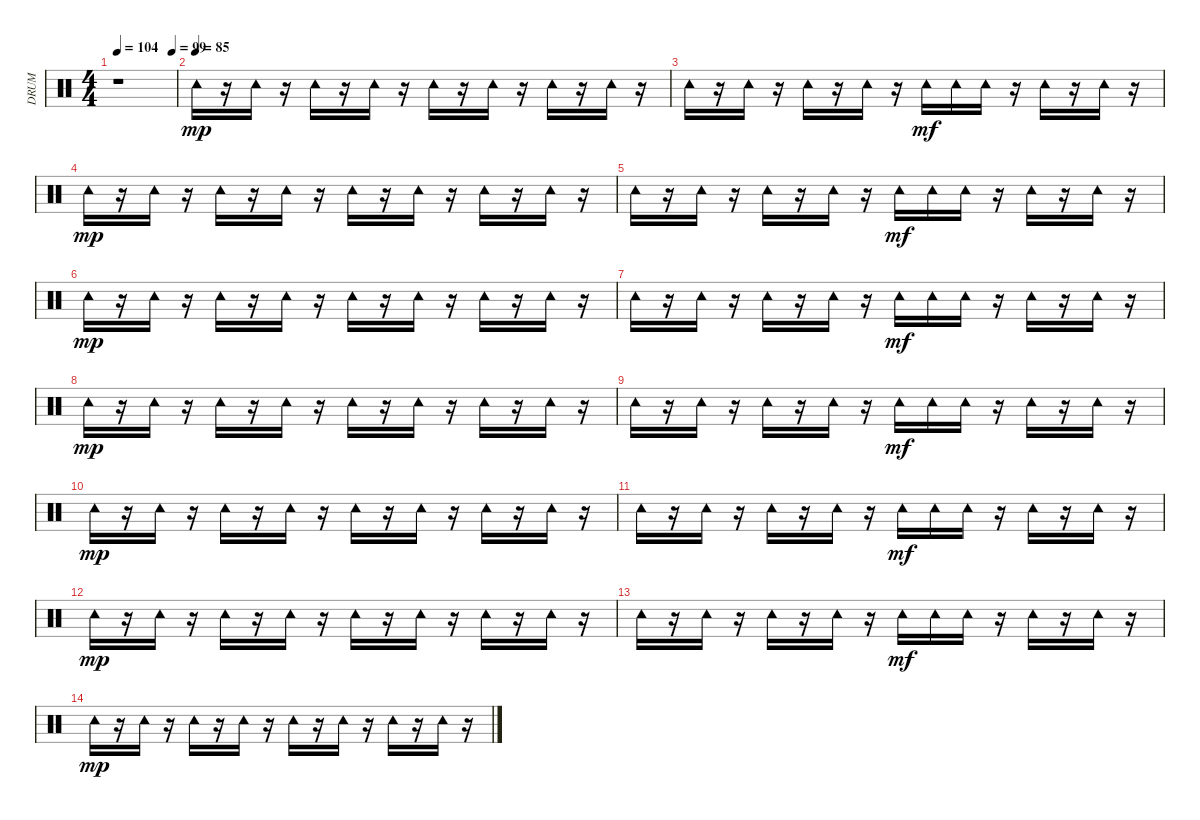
\track ("DRUM" "DRUM") {instrument percussion}
\staff {score}
\articulation defaults
\ts (4 4)
\tempo 104
\tempo (99 0.9375)
\tempo 104
\clef neutral
\ks c
r.1{dy mp} |
\tempo (85)
"Tambourine (hit)".16 r.16 "Tambourine (hit)".16 r.16 "Tambourine (hit)".16 r.16 "Tambourine (hit)".16 r.16 "Tambourine (hit)".16 r.16 "Tambourine (hit)".16 r.16 "Tambourine (hit)".16 r.16 "Tambourine (hit)".16 r.16 |
"Tambourine (hit)".16 r.16 "Tambourine (hit)".16 r.16 "Tambourine (hit)".16 r.16 "Tambourine (hit)".16 r.16 "Tambourine (hit)".16{dy mf} "Tambourine (hit)".16 "Tambourine (hit)".16 r.16 "Tambourine (hit)".16 r.16 "Tambourine (hit)".16 r.16 |
"Tambourine (hit)".16{dy mp} r.16 "Tambourine (hit)".16 r.16 "Tambourine (hit)".16 r.16 "Tambourine (hit)".16 r.16 "Tambourine (hit)".16 r.16 "Tambourine (hit)".16 r.16 "Tambourine (hit)".16 r.16 "Tambourine (hit)".16 r.16 |
"Tambourine (hit)".16 r.16 "Tambourine (hit)".16 r.16 "Tambourine (hit)".16 r.16 "Tambourine (hit)".16 r.16 "Tambourine (hit)".16{dy mf} "Tambourine (hit)".16 "Tambourine (hit)".16 r.16 "Tambourine (hit)".16 r.16 "Tambourine (hit)".16 r.16 |
"Tambourine (hit)".16{dy mp} r.16 "Tambourine (hit)".16 r.16 "Tambourine (hit)".16 r.16 "Tambourine (hit)".16 r.16 "Tambourine (hit)".16 r.16 "Tambourine (hit)".16 r.16 "Tambourine (hit)".16 r.16 "Tambourine (hit)".16 r.16 |
"Tambourine (hit)".16 r.16 "Tambourine (hit)".16 r.16 "Tambourine (hit)".16 r.16 "Tambourine (hit)".16 r.16 "Tambourine (hit)".16{dy mf} "Tambourine (hit)".16 "Tambourine (hit)".16 r.16 "Tambourine (hit)".16 r.16 "Tambourine (hit)".16 r.16 |
"Tambourine (hit)".16{dy mp} r.16 "Tambourine (hit)".16 r.16 "Tambourine (hit)".16 r.16 "Tambourine (hit)".16 r.16 "Tambourine (hit)".16 r.16 "Tambourine (hit)".16 r.16 "Tambourine (hit)".16 r.16 "Tambourine (hit)".16 r.16 |
"Tambourine (hit)".16 r.16 "Tambourine (hit)".16 r.16 "Tambourine (hit)".16 r.16 "Tambourine (hit)".16 r.16 "Tambourine (hit)".16{dy mf} "Tambourine (hit)".16 "Tambourine (hit)".16 r.16 "Tambourine (hit)".16 r.16 "Tambourine (hit)".16 r.16 |
"Tambourine (hit)".16{dy mp} r.16 "Tambourine (hit)".16 r.16 "Tambourine (hit)".16 r.16 "Tambourine (hit)".16 r.16 "Tambourine (hit)".16 r.16 "Tambourine (hit)".16 r.16 "Tambourine (hit)".16 r.16 "Tambourine (hit)".16 r.16 |
"Tambourine (hit)".16 r.16 "Tambourine (hit)".16 r.16 "Tambourine (hit)".16 r.16 "Tambourine (hit)".16 r.16 "Tambourine (hit)".16{dy mf} "Tambourine (hit)".16 "Tambourine (hit)".16 r.16 "Tambourine (hit)".16 r.16 "Tambourine (hit)".16 r.16 |
"Tambourine (hit)".16{dy mp} r.16 "Tambourine (hit)".16 r.16 "Tambourine (hit)".16 r.16 "Tambourine (hit)".16 r.16 "Tambourine (hit)".16 r.16 "Tambourine (hit)".16 r.16 "Tambourine (hit)".16 r.16 "Tambourine (hit)".16 r.16 |
"Tambourine (hit)".16 r.16 "Tambourine (hit)".16 r.16 "Tambourine (hit)".16 r.16 "Tambourine (hit)".16 r.16 "Tambourine (hit)".16{dy mf} "Tambourine (hit)".16 "Tambourine (hit)".16 r.16 "Tambourine (hit)".16 r.16 "Tambourine (hit)".16 r.16 |
"Tambourine (hit)".16{dy mp} r.16 "Tambourine (hit)".16 r.16 "Tambourine (hit)".16 r.16 "Tambourine (hit)".16 r.16 "Tambourine (hit)".16 r.16 "Tambourine (hit)".16 r.16 "Tambourine (hit)".16 r.16 "Tambourine (hit)".16 r.16
